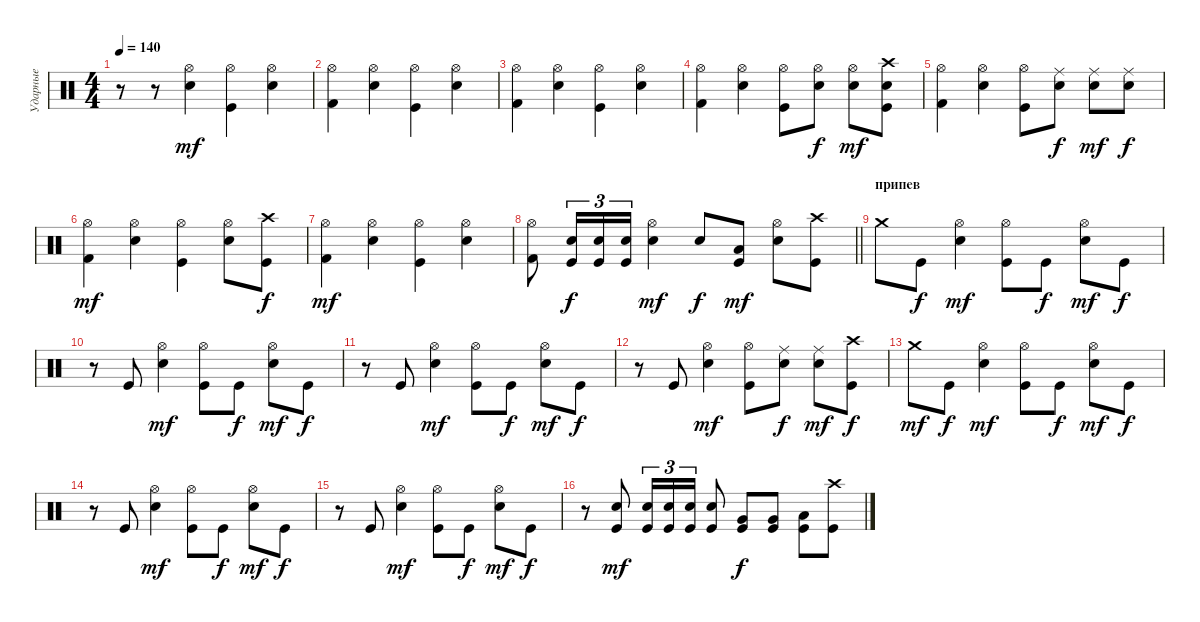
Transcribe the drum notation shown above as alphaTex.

\track ("Ударные" "Ударные") {instrument percussion}
\staff {score}
\articulation defaults
\ts (4 4)
\tempo 140
\clef neutral
\ks c
r.8{dy mf} r.8 ("Electric Snare (hit)" "Hi-Hat (open)").4 ("Kick (hit)" "Hi-Hat (open)").4 ("Electric Snare (hit)" "Hi-Hat (open)").4 |
("Kick (hit) 2" "Hi-Hat (open)").4 ("Electric Snare (hit)" "Hi-Hat (open)").4 ("Kick (hit)" "Hi-Hat (open)").4 ("Electric Snare (hit)" "Hi-Hat (open)").4 |
("Kick (hit) 2" "Hi-Hat (open)").4 ("Electric Snare (hit)" "Hi-Hat (open)").4 ("Kick (hit)" "Hi-Hat (open)").4 ("Electric Snare (hit)" "Hi-Hat (open)").4 |
("Kick (hit) 2" "Hi-Hat (open)").4 ("Electric Snare (hit)" "Hi-Hat (open)").4 ("Kick (hit)" "Hi-Hat (open)").8 ("Electric Snare (hit)" "Hi-Hat (open)").8{dy f} ("Electric Snare (hit)" "Hi-Hat (open)").8{dy mf} ("Kick (hit)" "Electric Snare (hit)" "Crash high (hit)").8 |
("Kick (hit) 2" "Hi-Hat (open)").4 ("Electric Snare (hit)" "Hi-Hat (open)").4 ("Kick (hit)" "Hi-Hat (open)").8 ("Electric Snare (hit)" "Ride (middle)").8{dy f} ("Electric Snare (hit)" "Ride (middle)").8{dy mf} ("Electric Snare (hit)" "Ride (middle)").8{dy f} |
("Kick (hit) 2" "Hi-Hat (open)").4{dy mf} ("Electric Snare (hit)" "Hi-Hat (open)").4 ("Kick (hit)" "Hi-Hat (open)").4 ("Electric Snare (hit)" "Hi-Hat (open)").8 ("Kick (hit)" "Crash high (hit)").8{dy f} |
("Kick (hit) 2" "Hi-Hat (open)").4{dy mf} ("Electric Snare (hit)" "Hi-Hat (open)").4 ("Kick (hit)" "Hi-Hat (open)").4 ("Electric Snare (hit)" "Hi-Hat (open)").4 |
\barLineRight lightlight
("Kick (hit) 2" "Hi-Hat (open)").8 ("Kick (hit)" "Electric Snare (hit)").16{tu (3 2) dy f} ("Kick (hit)" "Electric Snare (hit)").16{tu (3 2)} ("Kick (hit)" "Electric Snare (hit)").16{tu (3 2)} ("Electric Snare (hit)" "Hi-Hat (open)").4{dy mf} "Electric Snare (hit)".8{dy f} ("Kick (hit)" "Low Floor Tom (hit)").8{dy mf} ("Electric Snare (hit)" "Hi-Hat (open)").8 ("Kick (hit)" "Crash high (hit)").8 |
\section ("" "припев")
"Crash medium (hit)".8 "Kick (hit)".8{dy f} ("Electric Snare (hit)" "Hi-Hat (open)").4{dy mf} ("Kick (hit)" "Hi-Hat (open)").8 "Kick (hit)".8{dy f} ("Electric Snare (hit)" "Hi-Hat (open)").8{dy mf} "Kick (hit)".8{dy f} |
r.8 "Kick (hit)".8 ("Electric Snare (hit)" "Hi-Hat (open)").4{dy mf} ("Kick (hit)" "Hi-Hat (open)").8 "Kick (hit)".8{dy f} ("Electric Snare (hit)" "Hi-Hat (open)").8{dy mf} "Kick (hit)".8{dy f} |
r.8 "Kick (hit)".8 ("Electric Snare (hit)" "Hi-Hat (open)").4{dy mf} ("Kick (hit)" "Hi-Hat (open)").8 "Kick (hit)".8{dy f} ("Electric Snare (hit)" "Hi-Hat (open)").8{dy mf} "Kick (hit)".8{dy f} |
r.8 "Kick (hit)".8 ("Electric Snare (hit)" "Hi-Hat (open)").4{dy mf} ("Kick (hit)" "Hi-Hat (open)").8 ("Electric Snare (hit)" "Ride (middle)").8{dy f} ("Electric Snare (hit)" "Ride (middle)").8{dy mf} ("Kick (hit)" "Crash high (hit)").8{dy f} |
"Crash medium (hit)".8{dy mf} "Kick (hit)".8{dy f} ("Electric Snare (hit)" "Hi-Hat (open)").4{dy mf} ("Kick (hit)" "Hi-Hat (open)").8 "Kick (hit)".8{dy f} ("Electric Snare (hit)" "Hi-Hat (open)").8{dy mf} "Kick (hit)".8{dy f} |
r.8 "Kick (hit)".8 ("Electric Snare (hit)" "Hi-Hat (open)").4{dy mf} ("Kick (hit)" "Hi-Hat (open)").8 "Kick (hit)".8{dy f} ("Electric Snare (hit)" "Hi-Hat (open)").8{dy mf} "Kick (hit)".8{dy f} |
r.8 "Kick (hit)".8 ("Electric Snare (hit)" "Hi-Hat (open)").4{dy mf} ("Kick (hit)" "Hi-Hat (open)").8 "Kick (hit)".8{dy f} ("Electric Snare (hit)" "Hi-Hat (open)").8{dy mf} "Kick (hit)".8{dy f} |
r.8 ("Kick (hit)" "Electric Snare (hit)").8{dy mf} ("Kick (hit)" "Electric Snare (hit)").16{tu (3 2)} ("Kick (hit)" "Electric Snare (hit)").16{tu (3 2)} ("Kick (hit)" "Electric Snare (hit)").16{tu (3 2)} ("Kick (hit)" "Electric Snare (hit)").8 ("Kick (hit)" "Very Low Tom (hit)").8{dy f} ("Kick (hit)" "Very Low Tom (hit)").8 ("Kick (hit)" "Low Floor Tom (hit)").8 ("Kick (hit)" "Crash high (hit)").8
